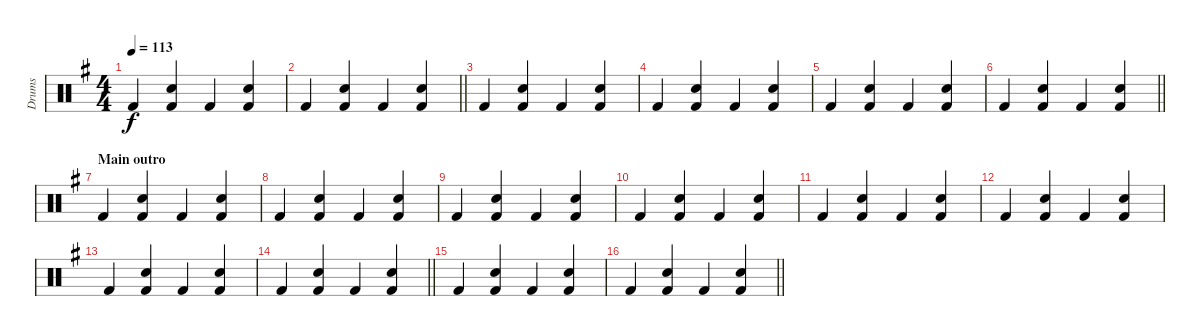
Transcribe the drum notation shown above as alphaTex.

\track ("Drums" "Drums") {instrument percussion}
\staff {score}
\articulation defaults
\ts (4 4)
\tempo 113
\clef neutral
\ks g "Kick (hit) 2".4{dy f}
("Snare (hit) 2" "Kick (hit) 2").4 "Kick (hit) 2".4 ("Snare (hit) 2" "Kick (hit) 2").4 |
\barLineRight lightlight "Kick (hit) 2".4
("Snare (hit) 2" "Kick (hit) 2").4 "Kick (hit) 2".4 ("Snare (hit) 2" "Kick (hit) 2").4 |
"Kick (hit) 2".4 ("Snare (hit) 2" "Kick (hit) 2").4 "Kick (hit) 2".4 ("Snare (hit) 2" "Kick (hit) 2").4 |
"Kick (hit) 2".4 ("Snare (hit) 2" "Kick (hit) 2").4 "Kick (hit) 2".4 ("Snare (hit) 2" "Kick (hit) 2").4 |
"Kick (hit) 2".4 ("Snare (hit) 2" "Kick (hit) 2").4 "Kick (hit) 2".4 ("Snare (hit) 2" "Kick (hit) 2").4 |
\barLineRight lightlight "Kick (hit) 2".4
("Snare (hit) 2" "Kick (hit) 2").4 "Kick (hit) 2".4 ("Snare (hit) 2" "Kick (hit) 2").4 |
\section ("" "Main outro")
"Kick (hit) 2".4 ("Snare (hit) 2" "Kick (hit) 2").4 "Kick (hit) 2".4 ("Snare (hit) 2" "Kick (hit) 2").4 |
"Kick (hit) 2".4 ("Snare (hit) 2" "Kick (hit) 2").4 "Kick (hit) 2".4 ("Snare (hit) 2" "Kick (hit) 2").4 |
"Kick (hit) 2".4 ("Snare (hit) 2" "Kick (hit) 2").4 "Kick (hit) 2".4 ("Snare (hit) 2" "Kick (hit) 2").4 |
"Kick (hit) 2".4 ("Snare (hit) 2" "Kick (hit) 2").4 "Kick (hit) 2".4 ("Snare (hit) 2" "Kick (hit) 2").4 |
"Kick (hit) 2".4 ("Snare (hit) 2" "Kick (hit) 2").4 "Kick (hit) 2".4 ("Snare (hit) 2" "Kick (hit) 2").4 |
"Kick (hit) 2".4 ("Snare (hit) 2" "Kick (hit) 2").4 "Kick (hit) 2".4 ("Snare (hit) 2" "Kick (hit) 2").4 |
"Kick (hit) 2".4 ("Snare (hit) 2" "Kick (hit) 2").4 "Kick (hit) 2".4 ("Snare (hit) 2" "Kick (hit) 2").4 |
\barLineRight lightlight "Kick (hit) 2".4
("Snare (hit) 2" "Kick (hit) 2").4 "Kick (hit) 2".4 ("Snare (hit) 2" "Kick (hit) 2").4 |
"Kick (hit) 2".4 ("Snare (hit) 2" "Kick (hit) 2").4 "Kick (hit) 2".4 ("Snare (hit) 2" "Kick (hit) 2").4 |
\barLineRight lightlight "Kick (hit) 2".4
("Snare (hit) 2" "Kick (hit) 2").4 "Kick (hit) 2".4 ("Snare (hit) 2" "Kick (hit) 2").4
